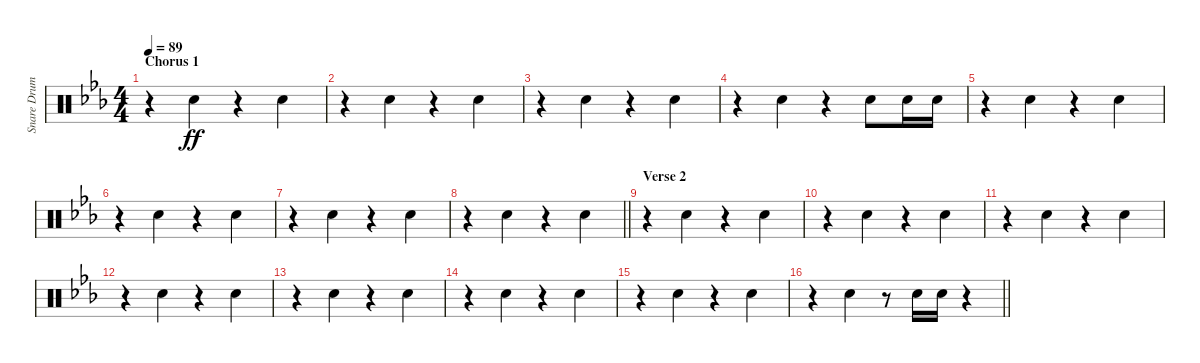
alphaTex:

\track ("Snare Drum" "Snare Drum") {instrument percussion}
\staff {score}
\articulation defaults
\ts (4 4)
\section ("" "Chorus 1")
\tempo 89
\clef neutral
\ks eb
r.4{dy ff beam merge} "Electric Snare (hit)".4 r.4{beam merge} "Electric Snare (hit)".4 |
r.4{beam merge} "Electric Snare (hit)".4 r.4{beam merge} "Electric Snare (hit)".4 |
r.4{beam merge} "Electric Snare (hit)".4 r.4{beam merge} "Electric Snare (hit)".4 |
r.4{beam merge} "Electric Snare (hit)".4 r.4{beam split} "Electric Snare (hit)".8 "Electric Snare (hit)".16 "Electric Snare (hit)".16 |
r.4{beam merge} "Electric Snare (hit)".4 r.4{beam merge} "Electric Snare (hit)".4 |
r.4{beam merge} "Electric Snare (hit)".4 r.4{beam merge} "Electric Snare (hit)".4 |
r.4{beam merge} "Electric Snare (hit)".4 r.4{beam merge} "Electric Snare (hit)".4 |
\barLineRight lightlight
r.4{beam merge} "Electric Snare (hit)".4 r.4{beam merge} "Electric Snare (hit)".4 |
\section ("" "Verse 2")
r.4{beam merge} "Electric Snare (hit)".4 r.4{beam merge} "Electric Snare (hit)".4 |
r.4{beam merge} "Electric Snare (hit)".4 r.4{beam merge} "Electric Snare (hit)".4 |
r.4{beam merge} "Electric Snare (hit)".4 r.4{beam merge} "Electric Snare (hit)".4 |
r.4{beam merge} "Electric Snare (hit)".4 r.4{beam merge} "Electric Snare (hit)".4 |
r.4{beam merge} "Electric Snare (hit)".4 r.4{beam merge} "Electric Snare (hit)".4 |
r.4{beam merge} "Electric Snare (hit)".4 r.4{beam merge} "Electric Snare (hit)".4 |
r.4{beam merge} "Electric Snare (hit)".4 r.4{beam merge} "Electric Snare (hit)".4 |
\barLineRight lightlight
r.4{beam merge} "Electric Snare (hit)".4 r.8 "Electric Snare (hit)".16 "Electric Snare (hit)".16 r.4
